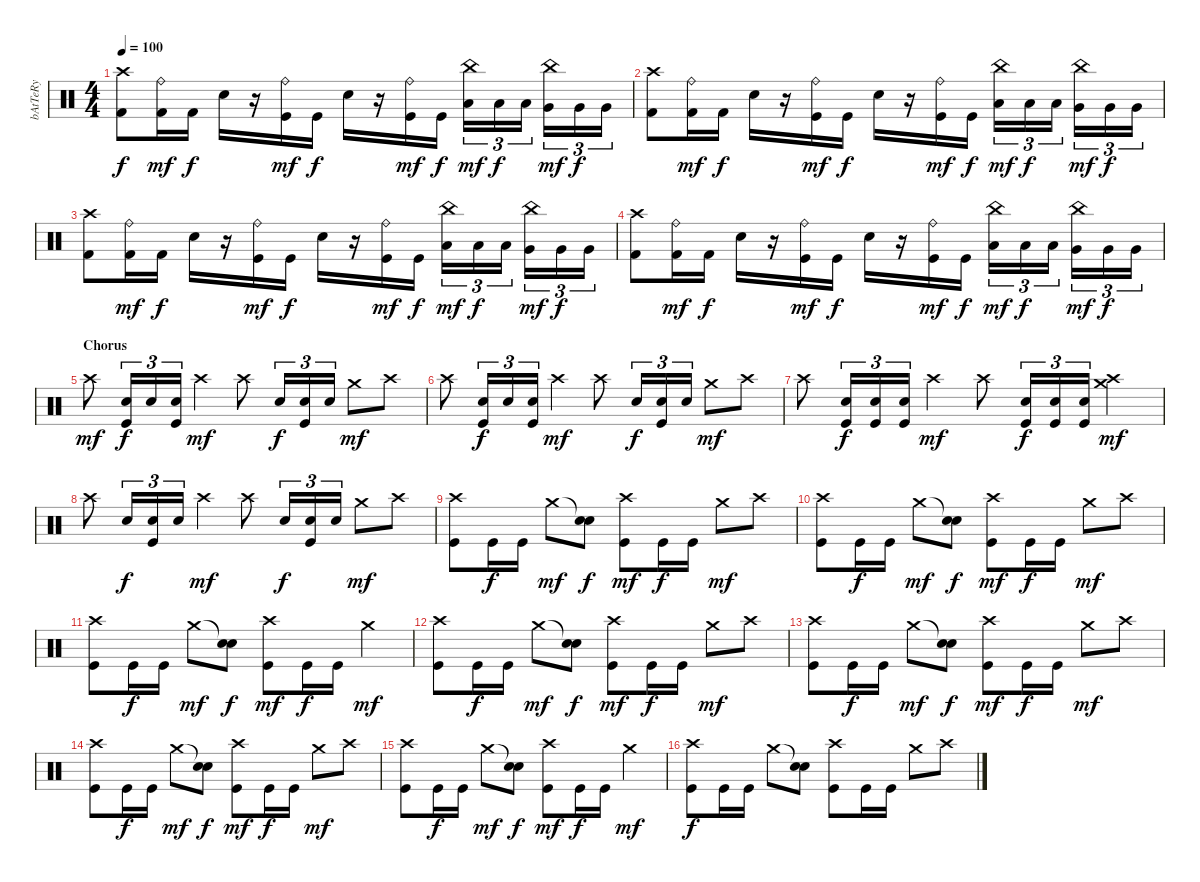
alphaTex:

\track ("bAtTeRy" "bAtTeRy") {instrument percussion}
\staff {score}
\articulation defaults
\ts (4 4)
\tempo 100
\clef neutral
\ks c
("Crash high (hit)" "Kick (hit) 2").8{dy f} ("Ride (bell)" "Kick (hit) 2").16{dy mf} "Kick (hit) 2".16{dy f} "Snare (hit) 2".16 r.16 ("Ride (bell)" "Kick (hit)").16{dy mf} "Kick (hit)".16{dy f} "Snare (hit) 2".16 r.16 ("Ride (bell)" "Kick (hit)").16{dy mf} "Kick (hit)".16{dy f} ("China (hit)" "Low Tom (hit)").16{tu (3 2) dy mf} "Low Tom (hit)".16{tu (3 2) dy f} "Low Tom (hit)".16{tu (3 2)} ("China (hit)" "Very Low Tom (hit)").16{tu (3 2) dy mf} "Very Low Tom (hit)".16{tu (3 2) dy f} "Very Low Tom (hit)".16{tu (3 2)} |
("Crash high (hit)" "Kick (hit) 2").8 ("Ride (bell)" "Kick (hit) 2").16{dy mf} "Kick (hit) 2".16{dy f} "Snare (hit) 2".16 r.16 ("Ride (bell)" "Kick (hit)").16{dy mf} "Kick (hit)".16{dy f} "Snare (hit) 2".16 r.16 ("Ride (bell)" "Kick (hit)").16{dy mf} "Kick (hit)".16{dy f} ("China (hit)" "Low Tom (hit)").16{tu (3 2) dy mf} "Low Tom (hit)".16{tu (3 2) dy f} "Low Tom (hit)".16{tu (3 2)} ("China (hit)" "Very Low Tom (hit)").16{tu (3 2) dy mf} "Very Low Tom (hit)".16{tu (3 2) dy f} "Very Low Tom (hit)".16{tu (3 2)} |
("Crash high (hit)" "Kick (hit) 2").8 ("Ride (bell)" "Kick (hit) 2").16{dy mf} "Kick (hit) 2".16{dy f} "Snare (hit) 2".16 r.16 ("Ride (bell)" "Kick (hit)").16{dy mf} "Kick (hit)".16{dy f} "Snare (hit) 2".16 r.16 ("Ride (bell)" "Kick (hit)").16{dy mf} "Kick (hit)".16{dy f} ("China (hit)" "Low Tom (hit)").16{tu (3 2) dy mf} "Low Tom (hit)".16{tu (3 2) dy f} "Low Tom (hit)".16{tu (3 2)} ("China (hit)" "Very Low Tom (hit)").16{tu (3 2) dy mf} "Very Low Tom (hit)".16{tu (3 2) dy f} "Very Low Tom (hit)".16{tu (3 2)} |
("Crash high (hit)" "Kick (hit) 2").8 ("Ride (bell)" "Kick (hit) 2").16{dy mf} "Kick (hit) 2".16{dy f} "Snare (hit) 2".16 r.16 ("Ride (bell)" "Kick (hit)").16{dy mf} "Kick (hit)".16{dy f} "Snare (hit) 2".16 r.16 ("Ride (bell)" "Kick (hit)").16{dy mf} "Kick (hit)".16{dy f} ("China (hit)" "Low Tom (hit)").16{tu (3 2) dy mf} "Low Tom (hit)".16{tu (3 2) dy f} "Low Tom (hit)".16{tu (3 2)} ("China (hit)" "Very Low Tom (hit)").16{tu (3 2) dy mf} "Very Low Tom (hit)".16{tu (3 2) dy f} "Very Low Tom (hit)".16{tu (3 2)} |
\section ("" "Chorus")
"Crash high (hit)".8{dy mf} ("Electric Snare (hit)" "Kick (hit)").16{tu (3 2) dy f} "Electric Snare (hit)".16{tu (3 2)} ("Electric Snare (hit)" "Kick (hit)").16{tu (3 2)} "Crash high (hit)".4{dy mf} "Crash high (hit)".8 "Electric Snare (hit)".16{tu (3 2) dy f} ("Electric Snare (hit)" "Kick (hit)").16{tu (3 2)} "Electric Snare (hit)".16{tu (3 2)} "Crash medium (hit)".8{dy mf} "Crash high (hit)".8 |
"Crash high (hit)".8 ("Electric Snare (hit)" "Kick (hit)").16{tu (3 2) dy f} "Electric Snare (hit)".16{tu (3 2)} ("Electric Snare (hit)" "Kick (hit)").16{tu (3 2)} "Crash high (hit)".4{dy mf} "Crash high (hit)".8 "Electric Snare (hit)".16{tu (3 2) dy f} ("Electric Snare (hit)" "Kick (hit)").16{tu (3 2)} "Electric Snare (hit)".16{tu (3 2)} "Crash medium (hit)".8{dy mf} "Crash high (hit)".8 |
"Crash high (hit)".8 ("Snare (hit) 2" "Kick (hit)").16{tu (3 2) dy f} ("Snare (hit) 2" "Kick (hit)").16{tu (3 2)} ("Snare (hit) 2" "Kick (hit)").16{tu (3 2)} "Crash high (hit)".4{dy mf} "Crash high (hit)".8 ("Snare (hit) 2" "Kick (hit)").16{tu (3 2) dy f} ("Snare (hit) 2" "Kick (hit)").16{tu (3 2)} ("Snare (hit) 2" "Kick (hit)").16{tu (3 2)} ("Crash medium (hit)" "Crash high (hit)").4{dy mf} |
"Crash high (hit)".8 "Snare (hit) 2".16{tu (3 2) dy f} ("Snare (hit) 2" "Kick (hit)").16{tu (3 2)} "Snare (hit) 2".16{tu (3 2)} "Crash high (hit)".4{dy mf} "Crash high (hit)".8 "Snare (hit) 2".16{tu (3 2) dy f} ("Snare (hit) 2" "Kick (hit)").16{tu (3 2)} "Snare (hit) 2".16{tu (3 2)} "Crash medium (hit)".8{dy mf} "Crash high (hit)".8 |
("Crash high (hit)" "Kick (hit)").8 "Kick (hit)".16{dy f} "Kick (hit)".16 "Crash medium (hit)".8{dy mf} ("Snare (hit)"{t} "Electric Snare (hit)").8{dy f} ("Crash high (hit)" "Kick (hit)").8{dy mf} "Kick (hit)".16{dy f} "Kick (hit)".16 "Crash medium (hit)".8{dy mf} "Crash high (hit)".8 |
("Crash high (hit)" "Kick (hit)").8 "Kick (hit)".16{dy f} "Kick (hit)".16 "Crash medium (hit)".8{dy mf} ("Snare (hit)"{t} "Electric Snare (hit)").8{dy f} ("Crash high (hit)" "Kick (hit)").8{dy mf} "Kick (hit)".16{dy f} "Kick (hit)".16 "Crash medium (hit)".8{dy mf} "Crash high (hit)".8 |
("Crash high (hit)" "Kick (hit)").8 "Kick (hit)".16{dy f} "Kick (hit)".16 "Crash medium (hit)".8{dy mf} ("Snare (hit)"{t} "Electric Snare (hit)").8{dy f} ("Crash high (hit)" "Kick (hit)").8{dy mf} "Kick (hit)".16{dy f} "Kick (hit)".16 "Crash medium (hit)".4{dy mf} |
("Crash high (hit)" "Kick (hit)").8 "Kick (hit)".16{dy f} "Kick (hit)".16 "Crash medium (hit)".8{dy mf} ("Snare (hit)"{t} "Electric Snare (hit)").8{dy f} ("Crash high (hit)" "Kick (hit)").8{dy mf} "Kick (hit)".16{dy f} "Kick (hit)".16 "Crash medium (hit)".8{dy mf} "Crash high (hit)".8 |
("Crash high (hit)" "Kick (hit)").8 "Kick (hit)".16{dy f} "Kick (hit)".16 "Crash medium (hit)".8{dy mf} ("Snare (hit)"{t} "Electric Snare (hit)").8{dy f} ("Crash high (hit)" "Kick (hit)").8{dy mf} "Kick (hit)".16{dy f} "Kick (hit)".16 "Crash medium (hit)".8{dy mf} "Crash high (hit)".8 |
("Crash high (hit)" "Kick (hit)").8 "Kick (hit)".16{dy f} "Kick (hit)".16 "Crash medium (hit)".8{dy mf} ("Snare (hit)"{t} "Electric Snare (hit)").8{dy f} ("Crash high (hit)" "Kick (hit)").8{dy mf} "Kick (hit)".16{dy f} "Kick (hit)".16 "Crash medium (hit)".8{dy mf} "Crash high (hit)".8 |
("Crash high (hit)" "Kick (hit)").8 "Kick (hit)".16{dy f} "Kick (hit)".16 "Crash medium (hit)".8{dy mf} ("Snare (hit)"{t} "Electric Snare (hit)").8{dy f} ("Crash high (hit)" "Kick (hit)").8{dy mf} "Kick (hit)".16{dy f} "Kick (hit)".16 "Crash medium (hit)".4{dy mf} |
("Crash high (hit)" "Kick (hit)").8{dy f} "Kick (hit)".16 "Kick (hit)".16 "Crash medium (hit)".8 ("Snare (hit)"{t} "Electric Snare (hit)").8 ("Crash high (hit)" "Kick (hit)").8 "Kick (hit)".16 "Kick (hit)".16 "Crash medium (hit)".8 "Crash high (hit)".8
